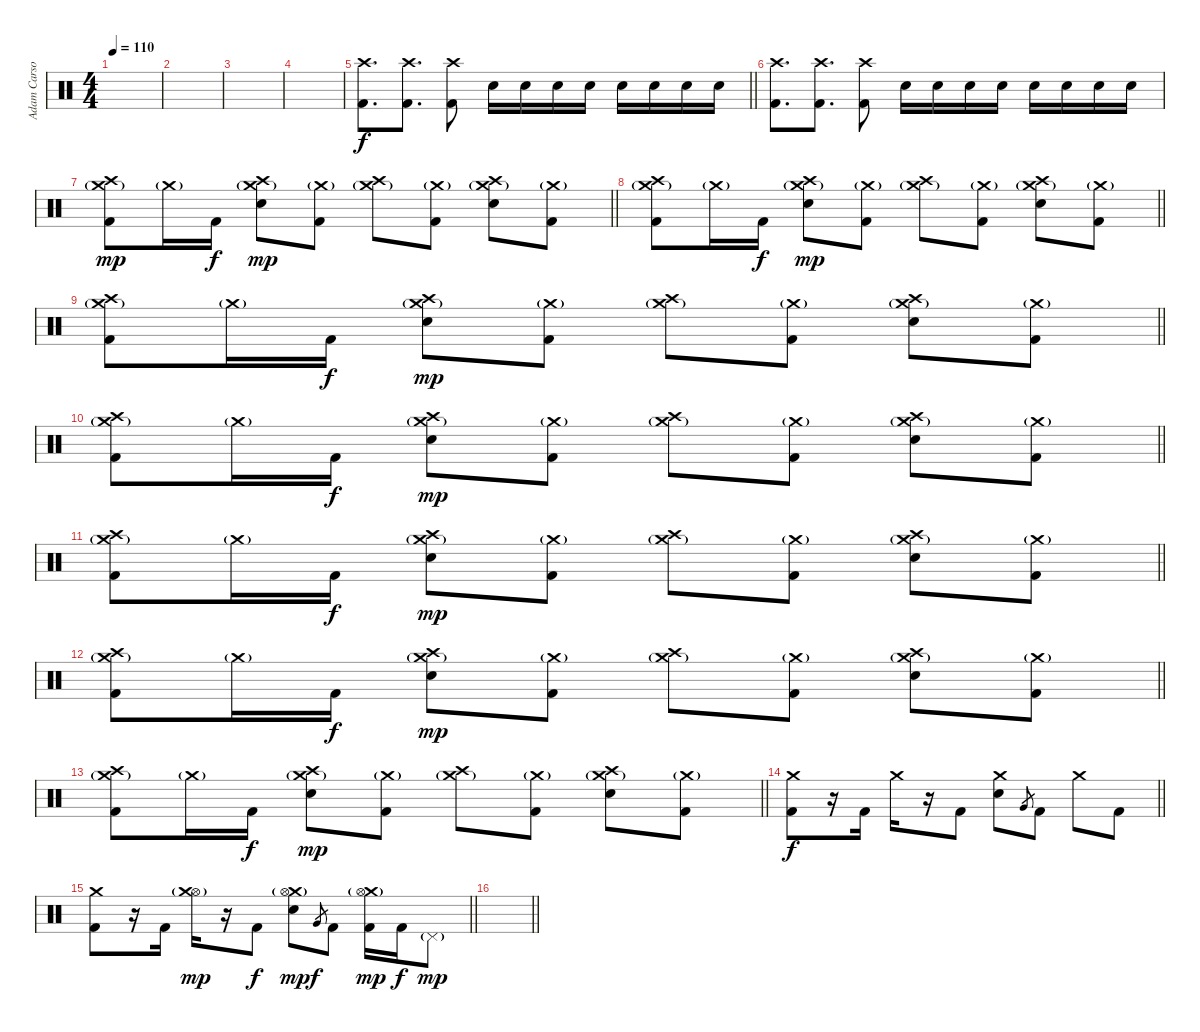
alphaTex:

\track ("Adam Carson" "Adam Carso") {instrument percussion}
\staff {score}
\articulation defaults
\ts (4 4)
\tempo 110
\clef neutral
\ks c
|
|
|
|
\barLineRight lightlight
("Crash high (hit)" "Kick (hit) 2").8{d dy f} ("Crash high (hit)" "Kick (hit) 2").8{d} ("Crash high (hit)" "Kick (hit) 2").8 "Snare (hit) 2".16 "Snare (hit) 2".16 "Snare (hit) 2".16 "Snare (hit) 2".16 "Snare (hit) 2".16 "Snare (hit) 2".16 "Snare (hit) 2".16 "Snare (hit) 2".16 |
("Crash high (hit)" "Kick (hit) 2").8{d} ("Crash high (hit)" "Kick (hit) 2").8{d} ("Crash high (hit)" "Kick (hit) 2").8 "Snare (hit) 2".16 "Snare (hit) 2".16 "Snare (hit) 2".16 "Snare (hit) 2".16 "Snare (hit) 2".16 "Snare (hit) 2".16 "Snare (hit) 2".16 "Snare (hit) 2".16 |
\barLineRight lightlight
("Crash high (hit)" "Crash medium (hit)"{g} "Kick (hit) 2").8{dy mp} "Crash medium (hit)"{g}.16 "Kick (hit) 2".16{dy f} ("Crash high (hit)" "Crash medium (hit)"{g} "Snare (hit) 2").8{dy mp} ("Crash medium (hit)"{g} "Kick (hit) 2").8 ("Crash high (hit)" "Crash medium (hit)"{g}).8 ("Crash medium (hit)"{g} "Kick (hit) 2").8 ("Crash high (hit)" "Crash medium (hit)"{g} "Snare (hit) 2").8 ("Crash medium (hit)"{g} "Kick (hit) 2").8 |
\barLineRight lightlight
("Crash high (hit)" "Crash medium (hit)"{g} "Kick (hit) 2").8 "Crash medium (hit)"{g}.16 "Kick (hit) 2".16{dy f} ("Crash high (hit)" "Crash medium (hit)"{g} "Snare (hit) 2").8{dy mp} ("Crash medium (hit)"{g} "Kick (hit) 2").8 ("Crash high (hit)" "Crash medium (hit)"{g}).8 ("Crash medium (hit)"{g} "Kick (hit) 2").8 ("Crash high (hit)" "Crash medium (hit)"{g} "Snare (hit) 2").8 ("Crash medium (hit)"{g} "Kick (hit) 2").8 |
\barLineRight lightlight
("Crash high (hit)" "Crash medium (hit)"{g} "Kick (hit) 2").8 "Crash medium (hit)"{g}.16 "Kick (hit) 2".16{dy f} ("Crash high (hit)" "Crash medium (hit)"{g} "Snare (hit) 2").8{dy mp} ("Crash medium (hit)"{g} "Kick (hit) 2").8 ("Crash high (hit)" "Crash medium (hit)"{g}).8 ("Crash medium (hit)"{g} "Kick (hit) 2").8 ("Crash high (hit)" "Crash medium (hit)"{g} "Snare (hit) 2").8 ("Crash medium (hit)"{g} "Kick (hit) 2").8 |
\barLineRight lightlight
("Crash high (hit)" "Crash medium (hit)"{g} "Kick (hit) 2").8 "Crash medium (hit)"{g}.16 "Kick (hit) 2".16{dy f} ("Crash high (hit)" "Crash medium (hit)"{g} "Snare (hit) 2").8{dy mp} ("Crash medium (hit)"{g} "Kick (hit) 2").8 ("Crash high (hit)" "Crash medium (hit)"{g}).8 ("Crash medium (hit)"{g} "Kick (hit) 2").8 ("Crash high (hit)" "Crash medium (hit)"{g} "Snare (hit) 2").8 ("Crash medium (hit)"{g} "Kick (hit) 2").8 |
\barLineRight lightlight
("Crash high (hit)" "Crash medium (hit)"{g} "Kick (hit) 2").8 "Crash medium (hit)"{g}.16 "Kick (hit) 2".16{dy f} ("Crash high (hit)" "Crash medium (hit)"{g} "Snare (hit) 2").8{dy mp} ("Crash medium (hit)"{g} "Kick (hit) 2").8 ("Crash high (hit)" "Crash medium (hit)"{g}).8 ("Crash medium (hit)"{g} "Kick (hit) 2").8 ("Crash high (hit)" "Crash medium (hit)"{g} "Snare (hit) 2").8 ("Crash medium (hit)"{g} "Kick (hit) 2").8 |
\barLineRight lightlight
("Crash high (hit)" "Crash medium (hit)"{g} "Kick (hit) 2").8 "Crash medium (hit)"{g}.16 "Kick (hit) 2".16{dy f} ("Crash high (hit)" "Crash medium (hit)"{g} "Snare (hit) 2").8{dy mp} ("Crash medium (hit)"{g} "Kick (hit) 2").8 ("Crash high (hit)" "Crash medium (hit)"{g}).8 ("Crash medium (hit)"{g} "Kick (hit) 2").8 ("Crash high (hit)" "Crash medium (hit)"{g} "Snare (hit) 2").8 ("Crash medium (hit)"{g} "Kick (hit) 2").8 |
\barLineRight lightlight
("Crash high (hit)" "Crash medium (hit)"{g} "Kick (hit) 2").8 "Crash medium (hit)"{g}.16 "Kick (hit) 2".16{dy f} ("Crash high (hit)" "Crash medium (hit)"{g} "Snare (hit) 2").8{dy mp} ("Crash medium (hit)"{g} "Kick (hit) 2").8 ("Crash high (hit)" "Crash medium (hit)"{g}).8 ("Crash medium (hit)"{g} "Kick (hit) 2").8 ("Crash high (hit)" "Crash medium (hit)"{g} "Snare (hit) 2").8 ("Crash medium (hit)"{g} "Kick (hit) 2").8 |
\barLineRight lightlight
("Crash medium (hit)" "Kick (hit) 2").8{dy f} r.16 "Kick (hit) 2".16 "Crash medium (hit)".16 r.16 "Kick (hit) 2".8 ("Crash medium (hit)" "Snare (hit) 2").8 "Very Low Tom (hit)".8{gr} "Kick (hit) 2".8 "Crash medium (hit)".8 "Kick (hit) 2".8 |
\barLineRight lightlight
("Crash medium (hit)" "Kick (hit) 2").8 r.16 "Kick (hit) 2".16 ("Hi-Hat (open)"{g} "Crash medium (hit)").16{dy mp} r.16 "Kick (hit) 2".8{dy f} ("Crash medium (hit)"{g} "Hi-Hat (open)" "Snare (hit) 2").8{dy mp} "Very Low Tom (hit)".8{gr dy f} "Kick (hit) 2".8 ("Kick (hit) 2" "Crash medium (hit)"{g} "Hi-Hat (open)").16{dy mp} "Kick (hit) 2".16{dy f} "Pedal Hi-Hat (hit)"{g}.8{dy mp} |
\barLineRight lightlight
